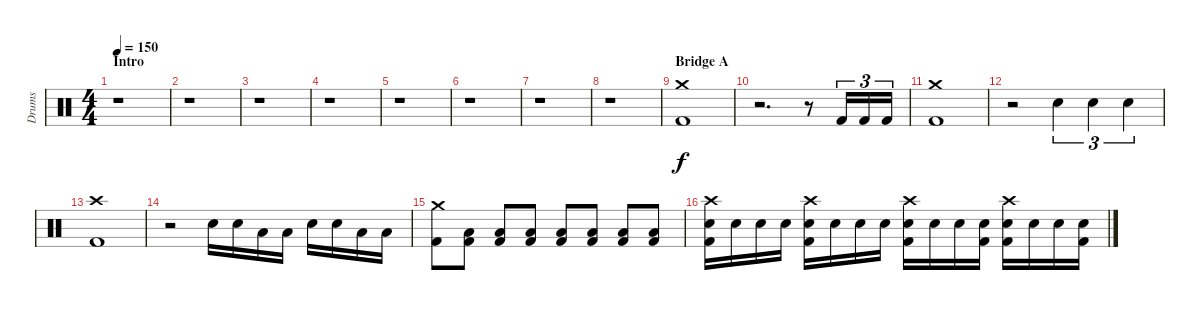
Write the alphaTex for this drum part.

\track ("Drums" "Drums") {instrument percussion}
\staff {score}
\articulation defaults
\ts (4 4)
\section ("" "Intro")
\tempo 150
\clef neutral
\ks c
r.1{dy f} |
r.1 |
r.1 |
r.1 |
r.1 |
r.1 |
r.1 |
r.1 |
\section ("" "Bridge A")
("Crash medium (hit)" "Kick (hit) 2").1 |
r.2{d} r.8 "Kick (hit) 2".16{tu (3 2)} "Kick (hit) 2".16{tu (3 2)} "Kick (hit) 2".16{tu (3 2)} |
("Crash medium (hit)" "Kick (hit) 2").1 |
r.2 "Snare (hit) 2".4{tu (3 2)} "Snare (hit) 2".4{tu (3 2)} "Snare (hit) 2".4{tu (3 2)} |
("Crash high (hit)" "Kick (hit) 2").1 |
r.2 "Snare (hit) 2".16 "Snare (hit) 2".16 "Low Tom (hit)".16 "Low Tom (hit)".16 "Snare (hit) 2".16 "Snare (hit) 2".16 "Low Tom (hit)".16 "Low Tom (hit)".16 |
("Crash medium (hit)" "Kick (hit) 2").8 ("Kick (hit) 2" "Low Tom (hit)").8 ("Kick (hit) 2" "Low Tom (hit)").8 ("Kick (hit) 2" "Low Tom (hit)").8 ("Kick (hit) 2" "Low Tom (hit)").8 ("Kick (hit) 2" "Low Tom (hit)").8 ("Kick (hit) 2" "Low Tom (hit)").8 ("Kick (hit) 2" "Low Tom (hit)").8 |
("Crash high (hit)" "Kick (hit) 2" "Snare (hit) 2").16 "Snare (hit) 2".16 "Snare (hit) 2".16 "Snare (hit) 2".16 ("Crash high (hit)" "Kick (hit) 2" "Snare (hit) 2").16 "Snare (hit) 2".16 "Snare (hit) 2".16 "Snare (hit) 2".16 ("Crash high (hit)" "Kick (hit) 2" "Snare (hit) 2").16 "Snare (hit) 2".16 "Snare (hit) 2".16 ("Kick (hit) 2" "Snare (hit) 2").16 ("Crash high (hit)" "Kick (hit) 2" "Snare (hit) 2").16 "Snare (hit) 2".16 "Snare (hit) 2".16 ("Kick (hit) 2" "Snare (hit) 2").16
